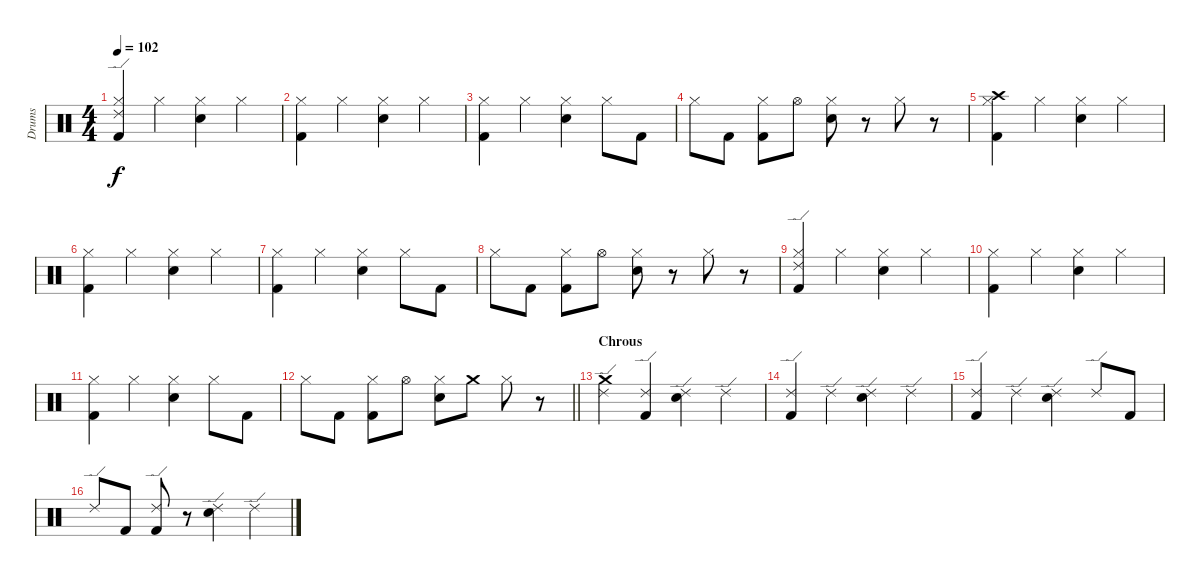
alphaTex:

\track ("Drums" "Drums") {instrument percussion}
\staff {score}
\articulation defaults
\ts (4 4)
\tempo 102
\clef neutral
\ks c
("Ride (edge) 2" "Hi-Hat (closed)" "Kick (hit) 2").4{dy f} "Hi-Hat (closed)".4 ("Hi-Hat (closed)" "Electric Snare (hit)").4 "Hi-Hat (closed)".4 |
("Hi-Hat (closed)" "Kick (hit) 2").4 "Hi-Hat (closed)".4 ("Hi-Hat (closed)" "Electric Snare (hit)").4 "Hi-Hat (closed)".4 |
("Hi-Hat (closed)" "Kick (hit) 2").4 "Hi-Hat (closed)".4 ("Hi-Hat (closed)" "Electric Snare (hit)").4 "Hi-Hat (closed)".8 "Kick (hit) 2".8 |
"Hi-Hat (closed)".8 "Kick (hit) 2".8 ("Hi-Hat (closed)" "Kick (hit) 2").8 "Hi-Hat (open)".8 ("Hi-Hat (closed)" "Electric Snare (hit)").8 r.8 "Hi-Hat (closed)".8 r.8 |
("Crash high (hit)" "Hi-Hat (closed)" "Kick (hit) 2").4 "Hi-Hat (closed)".4 ("Hi-Hat (closed)" "Electric Snare (hit)").4 "Hi-Hat (closed)".4 |
("Hi-Hat (closed)" "Kick (hit) 2").4 "Hi-Hat (closed)".4 ("Hi-Hat (closed)" "Electric Snare (hit)").4 "Hi-Hat (closed)".4 |
("Hi-Hat (closed)" "Kick (hit) 2").4 "Hi-Hat (closed)".4 ("Hi-Hat (closed)" "Electric Snare (hit)").4 "Hi-Hat (closed)".8 "Kick (hit) 2".8 |
"Hi-Hat (closed)".8 "Kick (hit) 2".8 ("Hi-Hat (closed)" "Kick (hit) 2").8 "Hi-Hat (open)".8 ("Hi-Hat (closed)" "Electric Snare (hit)").8 r.8 "Hi-Hat (closed)".8 r.8 |
("Ride (edge) 2" "Hi-Hat (closed)" "Kick (hit) 2").4 "Hi-Hat (closed)".4 ("Hi-Hat (closed)" "Electric Snare (hit)").4 "Hi-Hat (closed)".4 |
("Hi-Hat (closed)" "Kick (hit) 2").4 "Hi-Hat (closed)".4 ("Hi-Hat (closed)" "Electric Snare (hit)").4 "Hi-Hat (closed)".4 |
("Hi-Hat (closed)" "Kick (hit) 2").4 "Hi-Hat (closed)".4 ("Hi-Hat (closed)" "Electric Snare (hit)").4 "Hi-Hat (closed)".8 "Kick (hit) 2".8 |
\barLineRight lightlight "Hi-Hat (closed)".8 "Kick (hit) 2".8
("Hi-Hat (closed)" "Kick (hit) 2").8 "Hi-Hat (open)".8 ("Hi-Hat (closed)" "Electric Snare (hit)").8 "Crash medium (hit)".8 "Hi-Hat (closed)".8 r.8 |
\section ("" "Chrous")
("Crash medium (hit)" "Ride (edge) 2").4 ("Ride (edge) 2" "Kick (hit) 2").4 ("Ride (edge) 2" "Electric Snare (hit)").4 "Ride (edge) 2".4 |
("Ride (edge) 2" "Kick (hit) 2").4 "Ride (edge) 2".4 ("Ride (edge) 2" "Electric Snare (hit)").4 "Ride (edge) 2".4 |
("Ride (edge) 2" "Kick (hit) 2").4 "Ride (edge) 2".4 ("Ride (edge) 2" "Electric Snare (hit)").4 "Ride (edge) 2".8 "Kick (hit) 2".8 |
"Ride (edge) 2".8 "Kick (hit) 2".8 ("Ride (edge) 2" "Kick (hit) 2").8 r.8 ("Ride (edge) 2" "Electric Snare (hit)").4 "Ride (edge) 2".4
